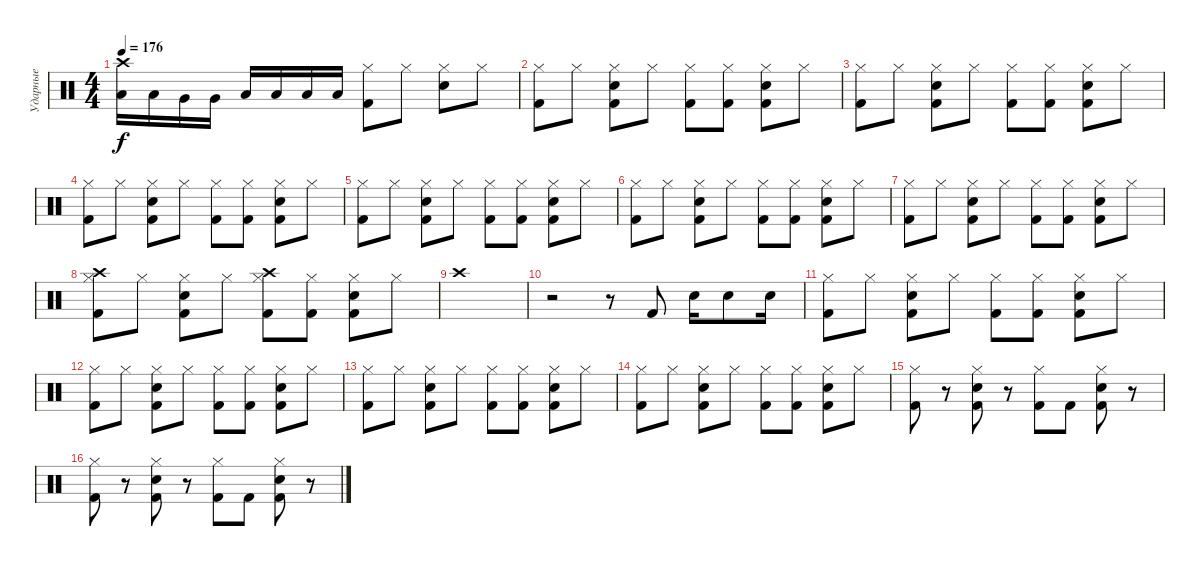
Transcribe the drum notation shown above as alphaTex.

\track ("Ударные" "Ударные") {instrument percussion}
\staff {score}
\articulation defaults
\ts (4 4)
\tempo 176
\clef neutral
\ks c
("Low Tom (hit)" "Crash high (hit)").16{dy f} "Low Tom (hit)".16 "Very Low Tom (hit)".16 "Very Low Tom (hit)".16 "Low Floor Tom (hit)".16 "Low Floor Tom (hit)".16 "Low Floor Tom (hit)".16 "Low Floor Tom (hit)".16 ("Hi-Hat (closed)" "Kick (hit) 2").8 "Hi-Hat (closed)".8 ("Hi-Hat (closed)" "Snare (hit) 2").8 "Hi-Hat (closed)".8 |
("Hi-Hat (closed)" "Kick (hit) 2").8 "Hi-Hat (closed)".8 ("Hi-Hat (closed)" "Kick (hit) 2" "Snare (hit) 2").8 "Hi-Hat (closed)".8 ("Hi-Hat (closed)" "Kick (hit) 2").8 ("Hi-Hat (closed)" "Kick (hit) 2").8 ("Hi-Hat (closed)" "Kick (hit) 2" "Snare (hit) 2").8 "Hi-Hat (closed)".8 |
("Hi-Hat (closed)" "Kick (hit) 2").8 "Hi-Hat (closed)".8 ("Hi-Hat (closed)" "Kick (hit) 2" "Snare (hit) 2").8 "Hi-Hat (closed)".8 ("Hi-Hat (closed)" "Kick (hit) 2").8 ("Hi-Hat (closed)" "Kick (hit) 2").8 ("Hi-Hat (closed)" "Kick (hit) 2" "Snare (hit) 2").8 "Hi-Hat (closed)".8 |
("Hi-Hat (closed)" "Kick (hit) 2").8 "Hi-Hat (closed)".8 ("Hi-Hat (closed)" "Kick (hit) 2" "Snare (hit) 2").8 "Hi-Hat (closed)".8 ("Hi-Hat (closed)" "Kick (hit) 2").8 ("Hi-Hat (closed)" "Kick (hit) 2").8 ("Hi-Hat (closed)" "Kick (hit) 2" "Snare (hit) 2").8 "Hi-Hat (closed)".8 |
("Hi-Hat (closed)" "Kick (hit) 2").8 "Hi-Hat (closed)".8 ("Hi-Hat (closed)" "Kick (hit) 2" "Snare (hit) 2").8 "Hi-Hat (closed)".8 ("Hi-Hat (closed)" "Kick (hit) 2").8 ("Hi-Hat (closed)" "Kick (hit) 2").8 ("Hi-Hat (closed)" "Kick (hit) 2" "Snare (hit) 2").8 "Hi-Hat (closed)".8 |
("Hi-Hat (closed)" "Kick (hit) 2").8 "Hi-Hat (closed)".8 ("Hi-Hat (closed)" "Kick (hit) 2" "Snare (hit) 2").8 "Hi-Hat (closed)".8 ("Hi-Hat (closed)" "Kick (hit) 2").8 ("Hi-Hat (closed)" "Kick (hit) 2").8 ("Hi-Hat (closed)" "Kick (hit) 2" "Snare (hit) 2").8 "Hi-Hat (closed)".8 |
("Hi-Hat (closed)" "Kick (hit) 2").8 "Hi-Hat (closed)".8 ("Hi-Hat (closed)" "Kick (hit) 2" "Snare (hit) 2").8 "Hi-Hat (closed)".8 ("Hi-Hat (closed)" "Kick (hit) 2").8 ("Hi-Hat (closed)" "Kick (hit) 2").8 ("Hi-Hat (closed)" "Kick (hit) 2" "Snare (hit) 2").8 "Hi-Hat (closed)".8 |
("Hi-Hat (closed)" "Kick (hit) 2" "Crash high (hit)").8 "Hi-Hat (closed)".8 ("Hi-Hat (closed)" "Kick (hit) 2" "Snare (hit) 2").8 "Hi-Hat (closed)".8 ("Hi-Hat (closed)" "Kick (hit) 2" "Crash high (hit)").8 ("Hi-Hat (closed)" "Kick (hit) 2").8 ("Hi-Hat (closed)" "Kick (hit) 2" "Snare (hit) 2").8 "Hi-Hat (closed)".8 |
"Crash high (hit)".1 |
r.2 r.8 "Kick (hit) 2".8 "Snare (hit) 2".16 "Snare (hit) 2".8 "Snare (hit) 2".16 |
("Hi-Hat (closed)" "Kick (hit) 2").8 "Hi-Hat (closed)".8 ("Hi-Hat (closed)" "Kick (hit) 2" "Snare (hit) 2").8 "Hi-Hat (closed)".8 ("Hi-Hat (closed)" "Kick (hit) 2").8 ("Hi-Hat (closed)" "Kick (hit) 2").8 ("Hi-Hat (closed)" "Kick (hit) 2" "Snare (hit) 2").8 "Hi-Hat (closed)".8 |
("Hi-Hat (closed)" "Kick (hit) 2").8 "Hi-Hat (closed)".8 ("Hi-Hat (closed)" "Kick (hit) 2" "Snare (hit) 2").8 "Hi-Hat (closed)".8 ("Hi-Hat (closed)" "Kick (hit) 2").8 ("Hi-Hat (closed)" "Kick (hit) 2").8 ("Hi-Hat (closed)" "Kick (hit) 2" "Snare (hit) 2").8 "Hi-Hat (closed)".8 |
("Hi-Hat (closed)" "Kick (hit) 2").8 "Hi-Hat (closed)".8 ("Hi-Hat (closed)" "Kick (hit) 2" "Snare (hit) 2").8 "Hi-Hat (closed)".8 ("Hi-Hat (closed)" "Kick (hit) 2").8 ("Hi-Hat (closed)" "Kick (hit) 2").8 ("Hi-Hat (closed)" "Kick (hit) 2" "Snare (hit) 2").8 "Hi-Hat (closed)".8 |
("Hi-Hat (closed)" "Kick (hit) 2").8 "Hi-Hat (closed)".8 ("Hi-Hat (closed)" "Kick (hit) 2" "Snare (hit) 2").8 "Hi-Hat (closed)".8 ("Hi-Hat (closed)" "Kick (hit) 2").8 ("Hi-Hat (closed)" "Kick (hit) 2").8 ("Hi-Hat (closed)" "Kick (hit) 2" "Snare (hit) 2").8 "Hi-Hat (closed)".8 |
("Hi-Hat (closed)" "Kick (hit) 2").8 r.8 ("Hi-Hat (closed)" "Kick (hit) 2" "Snare (hit) 2").8 r.8 ("Hi-Hat (closed)" "Kick (hit) 2").8 "Kick (hit) 2".8 ("Hi-Hat (closed)" "Kick (hit) 2" "Snare (hit) 2").8 r.8 |
("Hi-Hat (closed)" "Kick (hit) 2").8 r.8 ("Hi-Hat (closed)" "Kick (hit) 2" "Snare (hit) 2").8 r.8 ("Hi-Hat (closed)" "Kick (hit) 2").8 "Kick (hit) 2".8 ("Hi-Hat (closed)" "Kick (hit) 2" "Snare (hit) 2").8 r.8
